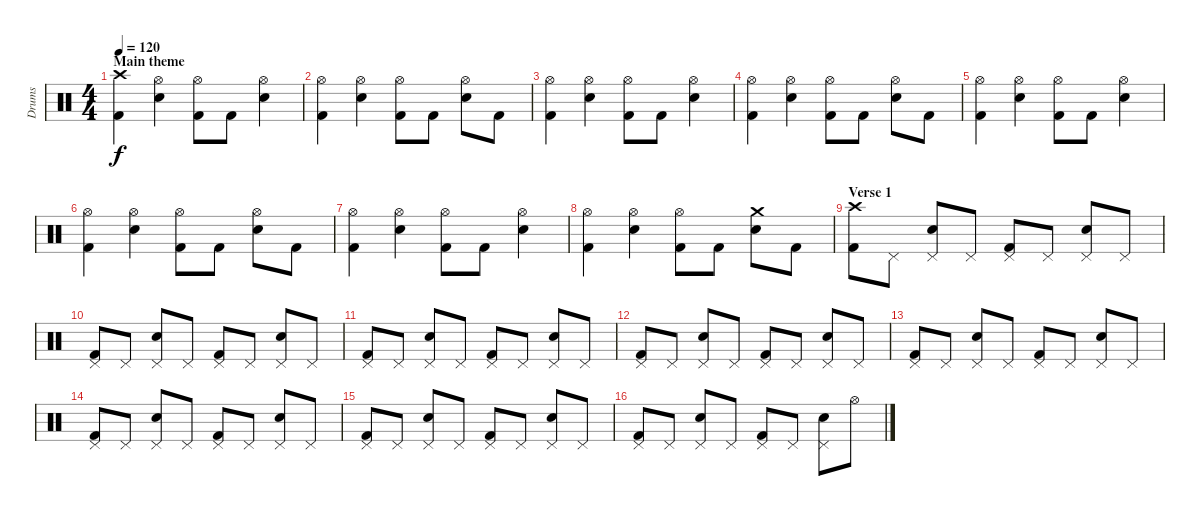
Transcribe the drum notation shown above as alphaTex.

\track ("Drums" "Drums") {instrument percussion}
\staff {score}
\articulation defaults
\ts (4 4)
\section ("" "Main theme")
\tempo 120
\clef neutral
\ks c
("Crash high (hit)" "Kick (hit) 2").4{dy f} ("Hi-Hat (open)" "Electric Snare (hit)").4 ("Hi-Hat (open)" "Kick (hit) 2").8 "Kick (hit) 2".8 ("Hi-Hat (open)" "Electric Snare (hit)").4 |
("Hi-Hat (open)" "Kick (hit) 2").4 ("Hi-Hat (open)" "Electric Snare (hit)").4 ("Hi-Hat (open)" "Kick (hit) 2").8 "Kick (hit) 2".8 ("Hi-Hat (open)" "Electric Snare (hit)").8 "Kick (hit) 2".8 |
("Hi-Hat (open)" "Kick (hit) 2").4 ("Hi-Hat (open)" "Electric Snare (hit)").4 ("Hi-Hat (open)" "Kick (hit) 2").8 "Kick (hit) 2".8 ("Hi-Hat (open)" "Electric Snare (hit)").4 |
("Hi-Hat (open)" "Kick (hit) 2").4 ("Hi-Hat (open)" "Electric Snare (hit)").4 ("Hi-Hat (open)" "Kick (hit) 2").8 "Kick (hit) 2".8 ("Hi-Hat (open)" "Electric Snare (hit)").8 "Kick (hit) 2".8 |
("Hi-Hat (open)" "Kick (hit) 2").4 ("Hi-Hat (open)" "Electric Snare (hit)").4 ("Hi-Hat (open)" "Kick (hit) 2").8 "Kick (hit) 2".8 ("Hi-Hat (open)" "Electric Snare (hit)").4 |
("Hi-Hat (open)" "Kick (hit) 2").4 ("Hi-Hat (open)" "Electric Snare (hit)").4 ("Hi-Hat (open)" "Kick (hit) 2").8 "Kick (hit) 2".8 ("Hi-Hat (open)" "Electric Snare (hit)").8 "Kick (hit) 2".8 |
("Hi-Hat (open)" "Kick (hit) 2").4 ("Hi-Hat (open)" "Electric Snare (hit)").4 ("Hi-Hat (open)" "Kick (hit) 2").8 "Kick (hit) 2".8 ("Hi-Hat (open)" "Electric Snare (hit)").4 |
("Hi-Hat (open)" "Kick (hit) 2").4 ("Hi-Hat (open)" "Electric Snare (hit)").4 ("Hi-Hat (open)" "Kick (hit) 2").8 "Kick (hit) 2".8 ("Crash medium (hit)" "Electric Snare (hit)").8 "Kick (hit) 2".8 |
\section ("" "Verse 1")
("Crash high (hit)" "Kick (hit) 2").8 "Pedal Hi-Hat (hit)".8 ("Pedal Hi-Hat (hit)" "Electric Snare (hit)").8 "Pedal Hi-Hat (hit)".8 ("Pedal Hi-Hat (hit)" "Kick (hit) 2").8 "Pedal Hi-Hat (hit)".8 ("Pedal Hi-Hat (hit)" "Electric Snare (hit)").8 "Pedal Hi-Hat (hit)".8 |
("Pedal Hi-Hat (hit)" "Kick (hit) 2").8 "Pedal Hi-Hat (hit)".8 ("Pedal Hi-Hat (hit)" "Electric Snare (hit)").8 "Pedal Hi-Hat (hit)".8 ("Pedal Hi-Hat (hit)" "Kick (hit) 2").8 "Pedal Hi-Hat (hit)".8 ("Pedal Hi-Hat (hit)" "Electric Snare (hit)").8 "Pedal Hi-Hat (hit)".8 |
("Pedal Hi-Hat (hit)" "Kick (hit) 2").8 "Pedal Hi-Hat (hit)".8 ("Pedal Hi-Hat (hit)" "Electric Snare (hit)").8 "Pedal Hi-Hat (hit)".8 ("Pedal Hi-Hat (hit)" "Kick (hit) 2").8 "Pedal Hi-Hat (hit)".8 ("Pedal Hi-Hat (hit)" "Electric Snare (hit)").8 "Pedal Hi-Hat (hit)".8 |
("Pedal Hi-Hat (hit)" "Kick (hit) 2").8 "Pedal Hi-Hat (hit)".8 ("Pedal Hi-Hat (hit)" "Electric Snare (hit)").8 "Pedal Hi-Hat (hit)".8 ("Pedal Hi-Hat (hit)" "Kick (hit) 2").8 "Pedal Hi-Hat (hit)".8 ("Pedal Hi-Hat (hit)" "Electric Snare (hit)").8 "Pedal Hi-Hat (hit)".8 |
("Pedal Hi-Hat (hit)" "Kick (hit) 2").8 "Pedal Hi-Hat (hit)".8 ("Pedal Hi-Hat (hit)" "Electric Snare (hit)").8 "Pedal Hi-Hat (hit)".8 ("Pedal Hi-Hat (hit)" "Kick (hit) 2").8 "Pedal Hi-Hat (hit)".8 ("Pedal Hi-Hat (hit)" "Electric Snare (hit)").8 "Pedal Hi-Hat (hit)".8 |
("Pedal Hi-Hat (hit)" "Kick (hit) 2").8 "Pedal Hi-Hat (hit)".8 ("Pedal Hi-Hat (hit)" "Electric Snare (hit)").8 "Pedal Hi-Hat (hit)".8 ("Pedal Hi-Hat (hit)" "Kick (hit) 2").8 "Pedal Hi-Hat (hit)".8 ("Pedal Hi-Hat (hit)" "Electric Snare (hit)").8 "Pedal Hi-Hat (hit)".8 |
("Pedal Hi-Hat (hit)" "Kick (hit) 2").8 "Pedal Hi-Hat (hit)".8 ("Pedal Hi-Hat (hit)" "Electric Snare (hit)").8 "Pedal Hi-Hat (hit)".8 ("Pedal Hi-Hat (hit)" "Kick (hit) 2").8 "Pedal Hi-Hat (hit)".8 ("Pedal Hi-Hat (hit)" "Electric Snare (hit)").8 "Pedal Hi-Hat (hit)".8 |
("Pedal Hi-Hat (hit)" "Kick (hit) 2").8 "Pedal Hi-Hat (hit)".8 ("Pedal Hi-Hat (hit)" "Electric Snare (hit)").8 "Pedal Hi-Hat (hit)".8 ("Pedal Hi-Hat (hit)" "Kick (hit) 2").8 "Pedal Hi-Hat (hit)".8 ("Pedal Hi-Hat (hit)" "Electric Snare (hit)").8 "Hi-Hat (open)".8
